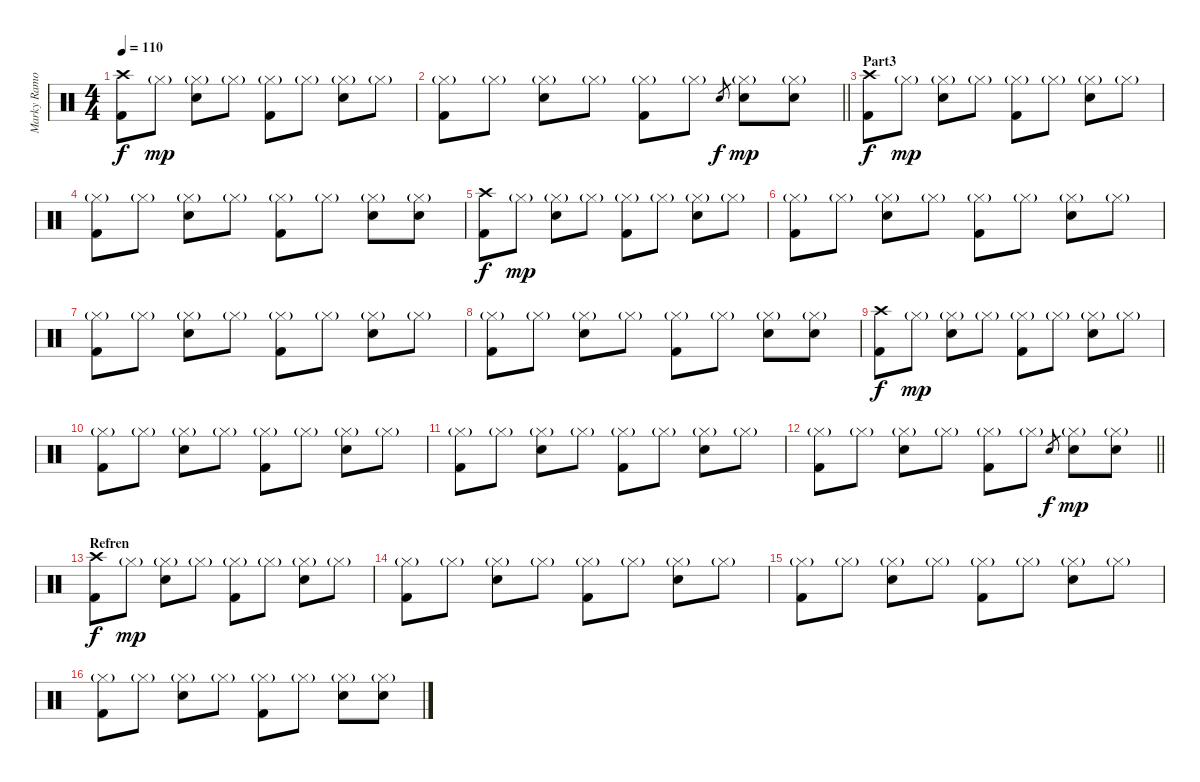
\track ("Marky Ramone-Drums" "Marky Ramo") {instrument percussion}
\staff
\articulation defaults
\ts (4 4)
\tempo 110
\clef neutral
\ks c
("Crash high (hit)" "Kick (hit) 2").8{dy f} "Hi-Hat (closed)"{g}.8{dy mp} ("Hi-Hat (closed)"{g} "Snare (hit) 2").8 "Hi-Hat (closed)"{g}.8 ("Hi-Hat (closed)"{g} "Kick (hit) 2").8 "Hi-Hat (closed)"{g}.8 ("Hi-Hat (closed)"{g} "Snare (hit) 2").8 "Hi-Hat (closed)"{g}.8 |
\barLineRight lightlight
("Hi-Hat (closed)"{g} "Kick (hit) 2").8 "Hi-Hat (closed)"{g}.8 ("Hi-Hat (closed)"{g} "Snare (hit) 2").8 "Hi-Hat (closed)"{g}.8 ("Hi-Hat (closed)"{g} "Kick (hit) 2").8 "Hi-Hat (closed)"{g}.8 "Snare (hit) 2".8{gr dy f} ("Hi-Hat (closed)"{g} "Snare (hit) 2").8{dy mp} ("Hi-Hat (closed)"{g} "Snare (hit) 2").8 |
\section ("" "Part3")
("Crash high (hit)" "Kick (hit) 2").8{dy f} "Hi-Hat (closed)"{g}.8{dy mp} ("Hi-Hat (closed)"{g} "Snare (hit) 2").8 "Hi-Hat (closed)"{g}.8 ("Hi-Hat (closed)"{g} "Kick (hit) 2").8 "Hi-Hat (closed)"{g}.8 ("Hi-Hat (closed)"{g} "Snare (hit) 2").8 "Hi-Hat (closed)"{g}.8 |
("Hi-Hat (closed)"{g} "Kick (hit) 2").8 "Hi-Hat (closed)"{g}.8 ("Hi-Hat (closed)"{g} "Snare (hit) 2").8 "Hi-Hat (closed)"{g}.8 ("Hi-Hat (closed)"{g} "Kick (hit) 2").8 "Hi-Hat (closed)"{g}.8 ("Hi-Hat (closed)"{g} "Snare (hit) 2").8 ("Hi-Hat (closed)"{g} "Snare (hit) 2").8 |
("Crash high (hit)" "Kick (hit) 2").8{dy f} "Hi-Hat (closed)"{g}.8{dy mp} ("Hi-Hat (closed)"{g} "Snare (hit) 2").8 "Hi-Hat (closed)"{g}.8 ("Hi-Hat (closed)"{g} "Kick (hit) 2").8 "Hi-Hat (closed)"{g}.8 ("Hi-Hat (closed)"{g} "Snare (hit) 2").8 "Hi-Hat (closed)"{g}.8 |
("Hi-Hat (closed)"{g} "Kick (hit) 2").8 "Hi-Hat (closed)"{g}.8 ("Hi-Hat (closed)"{g} "Snare (hit) 2").8 "Hi-Hat (closed)"{g}.8 ("Hi-Hat (closed)"{g} "Kick (hit) 2").8 "Hi-Hat (closed)"{g}.8 ("Hi-Hat (closed)"{g} "Snare (hit) 2").8 "Hi-Hat (closed)"{g}.8 |
("Hi-Hat (closed)"{g} "Kick (hit) 2").8 "Hi-Hat (closed)"{g}.8 ("Hi-Hat (closed)"{g} "Snare (hit) 2").8 "Hi-Hat (closed)"{g}.8 ("Hi-Hat (closed)"{g} "Kick (hit) 2").8 "Hi-Hat (closed)"{g}.8 ("Hi-Hat (closed)"{g} "Snare (hit) 2").8 "Hi-Hat (closed)"{g}.8 |
("Hi-Hat (closed)"{g} "Kick (hit) 2").8 "Hi-Hat (closed)"{g}.8 ("Hi-Hat (closed)"{g} "Snare (hit) 2").8 "Hi-Hat (closed)"{g}.8 ("Hi-Hat (closed)"{g} "Kick (hit) 2").8 "Hi-Hat (closed)"{g}.8 ("Hi-Hat (closed)"{g} "Snare (hit) 2").8 ("Hi-Hat (closed)"{g} "Snare (hit) 2").8 |
("Crash high (hit)" "Kick (hit) 2").8{dy f} "Hi-Hat (closed)"{g}.8{dy mp} ("Hi-Hat (closed)"{g} "Snare (hit) 2").8 "Hi-Hat (closed)"{g}.8 ("Hi-Hat (closed)"{g} "Kick (hit) 2").8 "Hi-Hat (closed)"{g}.8 ("Hi-Hat (closed)"{g} "Snare (hit) 2").8 "Hi-Hat (closed)"{g}.8 |
("Hi-Hat (closed)"{g} "Kick (hit) 2").8 "Hi-Hat (closed)"{g}.8 ("Hi-Hat (closed)"{g} "Snare (hit) 2").8 "Hi-Hat (closed)"{g}.8 ("Hi-Hat (closed)"{g} "Kick (hit) 2").8 "Hi-Hat (closed)"{g}.8 ("Hi-Hat (closed)"{g} "Snare (hit) 2").8 "Hi-Hat (closed)"{g}.8 |
("Hi-Hat (closed)"{g} "Kick (hit) 2").8 "Hi-Hat (closed)"{g}.8 ("Hi-Hat (closed)"{g} "Snare (hit) 2").8 "Hi-Hat (closed)"{g}.8 ("Hi-Hat (closed)"{g} "Kick (hit) 2").8 "Hi-Hat (closed)"{g}.8 ("Hi-Hat (closed)"{g} "Snare (hit) 2").8 "Hi-Hat (closed)"{g}.8 |
\barLineRight lightlight
("Hi-Hat (closed)"{g} "Kick (hit) 2").8 "Hi-Hat (closed)"{g}.8 ("Hi-Hat (closed)"{g} "Snare (hit) 2").8 "Hi-Hat (closed)"{g}.8 ("Hi-Hat (closed)"{g} "Kick (hit) 2").8 "Hi-Hat (closed)"{g}.8 "Snare (hit) 2".8{gr dy f} ("Hi-Hat (closed)"{g} "Snare (hit) 2").8{dy mp} ("Hi-Hat (closed)"{g} "Snare (hit) 2").8 |
\section ("" "Refren")
("Crash high (hit)" "Kick (hit) 2").8{dy f} "Hi-Hat (closed)"{g}.8{dy mp} ("Hi-Hat (closed)"{g} "Snare (hit) 2").8 "Hi-Hat (closed)"{g}.8 ("Hi-Hat (closed)"{g} "Kick (hit) 2").8 "Hi-Hat (closed)"{g}.8 ("Hi-Hat (closed)"{g} "Snare (hit) 2").8 "Hi-Hat (closed)"{g}.8 |
("Hi-Hat (closed)"{g} "Kick (hit) 2").8 "Hi-Hat (closed)"{g}.8 ("Hi-Hat (closed)"{g} "Snare (hit) 2").8 "Hi-Hat (closed)"{g}.8 ("Hi-Hat (closed)"{g} "Kick (hit) 2").8 "Hi-Hat (closed)"{g}.8 ("Hi-Hat (closed)"{g} "Snare (hit) 2").8 "Hi-Hat (closed)"{g}.8 |
("Hi-Hat (closed)"{g} "Kick (hit) 2").8 "Hi-Hat (closed)"{g}.8 ("Hi-Hat (closed)"{g} "Snare (hit) 2").8 "Hi-Hat (closed)"{g}.8 ("Hi-Hat (closed)"{g} "Kick (hit) 2").8 "Hi-Hat (closed)"{g}.8 ("Hi-Hat (closed)"{g} "Snare (hit) 2").8 "Hi-Hat (closed)"{g}.8 |
("Hi-Hat (closed)"{g} "Kick (hit) 2").8 "Hi-Hat (closed)"{g}.8 ("Hi-Hat (closed)"{g} "Snare (hit) 2").8 "Hi-Hat (closed)"{g}.8 ("Hi-Hat (closed)"{g} "Kick (hit) 2").8 "Hi-Hat (closed)"{g}.8 ("Hi-Hat (closed)"{g} "Snare (hit) 2").8 ("Hi-Hat (closed)"{g} "Snare (hit) 2").8
